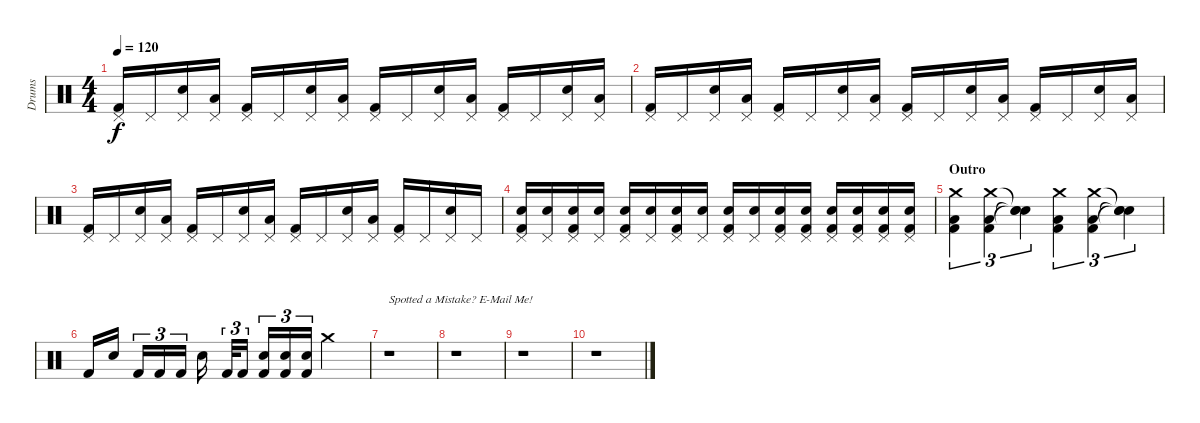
\track ("Drums" "Drums") {instrument percussion}
\staff {score}
\articulation defaults
\ts (4 4)
\tempo 120
\clef neutral
\ks c
("Pedal Hi-Hat (hit)" "Kick (hit) 2").16{dy f} "Pedal Hi-Hat (hit)".16 ("Pedal Hi-Hat (hit)" "Snare (hit) 2").16 ("Pedal Hi-Hat (hit)" "Low Tom (hit)").16 ("Pedal Hi-Hat (hit)" "Kick (hit) 2").16 "Pedal Hi-Hat (hit)".16 ("Pedal Hi-Hat (hit)" "Snare (hit) 2").16 ("Pedal Hi-Hat (hit)" "Low Tom (hit)").16 ("Pedal Hi-Hat (hit)" "Kick (hit) 2").16 "Pedal Hi-Hat (hit)".16 ("Pedal Hi-Hat (hit)" "Snare (hit) 2").16 ("Pedal Hi-Hat (hit)" "Low Tom (hit)").16 ("Pedal Hi-Hat (hit)" "Kick (hit) 2").16 "Pedal Hi-Hat (hit)".16 ("Pedal Hi-Hat (hit)" "Snare (hit) 2").16 ("Pedal Hi-Hat (hit)" "Low Tom (hit)").16 |
("Pedal Hi-Hat (hit)" "Kick (hit) 2").16 "Pedal Hi-Hat (hit)".16 ("Pedal Hi-Hat (hit)" "Snare (hit) 2").16 ("Pedal Hi-Hat (hit)" "Low Tom (hit)").16 ("Pedal Hi-Hat (hit)" "Kick (hit) 2").16 "Pedal Hi-Hat (hit)".16 ("Pedal Hi-Hat (hit)" "Snare (hit) 2").16 ("Pedal Hi-Hat (hit)" "Low Tom (hit)").16 ("Pedal Hi-Hat (hit)" "Kick (hit) 2").16 "Pedal Hi-Hat (hit)".16 ("Pedal Hi-Hat (hit)" "Snare (hit) 2").16 ("Pedal Hi-Hat (hit)" "Low Tom (hit)").16 ("Pedal Hi-Hat (hit)" "Kick (hit) 2").16 "Pedal Hi-Hat (hit)".16 ("Pedal Hi-Hat (hit)" "Snare (hit) 2").16 ("Pedal Hi-Hat (hit)" "Low Tom (hit)").16 |
("Pedal Hi-Hat (hit)" "Kick (hit) 2").16 "Pedal Hi-Hat (hit)".16 ("Pedal Hi-Hat (hit)" "Snare (hit) 2").16 ("Pedal Hi-Hat (hit)" "Low Tom (hit)").16 ("Pedal Hi-Hat (hit)" "Kick (hit) 2").16 "Pedal Hi-Hat (hit)".16 ("Pedal Hi-Hat (hit)" "Snare (hit) 2").16 ("Pedal Hi-Hat (hit)" "Low Tom (hit)").16 ("Pedal Hi-Hat (hit)" "Kick (hit) 2").16 "Pedal Hi-Hat (hit)".16 ("Pedal Hi-Hat (hit)" "Snare (hit) 2").16 ("Pedal Hi-Hat (hit)" "Low Tom (hit)").16 ("Pedal Hi-Hat (hit)" "Kick (hit) 2").16 "Pedal Hi-Hat (hit)".16 ("Pedal Hi-Hat (hit)" "Snare (hit) 2").16 "Pedal Hi-Hat (hit)".16 |
("Pedal Hi-Hat (hit)" "Snare (hit) 2" "Kick (hit) 2").16 ("Pedal Hi-Hat (hit)" "Snare (hit) 2").16 ("Pedal Hi-Hat (hit)" "Snare (hit) 2" "Kick (hit) 2").16 ("Pedal Hi-Hat (hit)" "Snare (hit) 2").16 ("Pedal Hi-Hat (hit)" "Snare (hit) 2" "Kick (hit) 2").16 ("Pedal Hi-Hat (hit)" "Snare (hit) 2").16 ("Pedal Hi-Hat (hit)" "Snare (hit) 2" "Kick (hit) 2").16 ("Pedal Hi-Hat (hit)" "Snare (hit) 2").16 ("Pedal Hi-Hat (hit)" "Snare (hit) 2" "Kick (hit) 2").16 ("Pedal Hi-Hat (hit)" "Snare (hit) 2").16 ("Pedal Hi-Hat (hit)" "Snare (hit) 2" "Kick (hit) 2").16 ("Pedal Hi-Hat (hit)" "Snare (hit) 2" "Kick (hit) 2").16 ("Pedal Hi-Hat (hit)" "Snare (hit) 2" "Kick (hit) 2").16 ("Pedal Hi-Hat (hit)" "Snare (hit) 2" "Kick (hit) 2").16 ("Pedal Hi-Hat (hit)" "Snare (hit) 2" "Kick (hit) 2").16 ("Pedal Hi-Hat (hit)" "Snare (hit) 2" "Kick (hit) 2").16 |
\section ("" "Outro")
("Crash medium (hit)" "Low Tom (hit)" "Kick (hit) 2").4{tu (3 2)} ("Crash medium (hit)" "Low Tom (hit)" "Kick (hit) 2").4{tu (3 2)} ("Snare (hit)"{t} "Snare (hit)"{t} "Snare (hit)"{t}).4{tu (3 2)} ("Crash medium (hit)" "Low Tom (hit)" "Kick (hit) 2").4{tu (3 2)} ("Crash medium (hit)" "Low Tom (hit)" "Kick (hit) 2").4{tu (3 2)} ("Snare (hit)"{t} "Snare (hit)"{t} "Snare (hit)"{t}).4{tu (3 2)} |
"Kick (hit) 2".16 "Snare (hit) 2".16 "Kick (hit) 2".16{tu (3 2)} "Kick (hit) 2".16{tu (3 2)} "Kick (hit) 2".16{tu (3 2)} "Snare (hit) 2".16 "Kick (hit) 2".32{tu (3 2)} "Kick (hit) 2".16{tu (3 2)} ("Snare (hit) 2" "Kick (hit) 2").16{tu (3 2)} ("Snare (hit) 2" "Kick (hit) 2").16{tu (3 2)} ("Snare (hit) 2" "Kick (hit) 2").16{tu (3 2)} "Crash medium (hit)".2 |
r.1{txt "Spotted a Mistake? E-Mail Me!"} |
r.1 |
r.1 |
r.1
